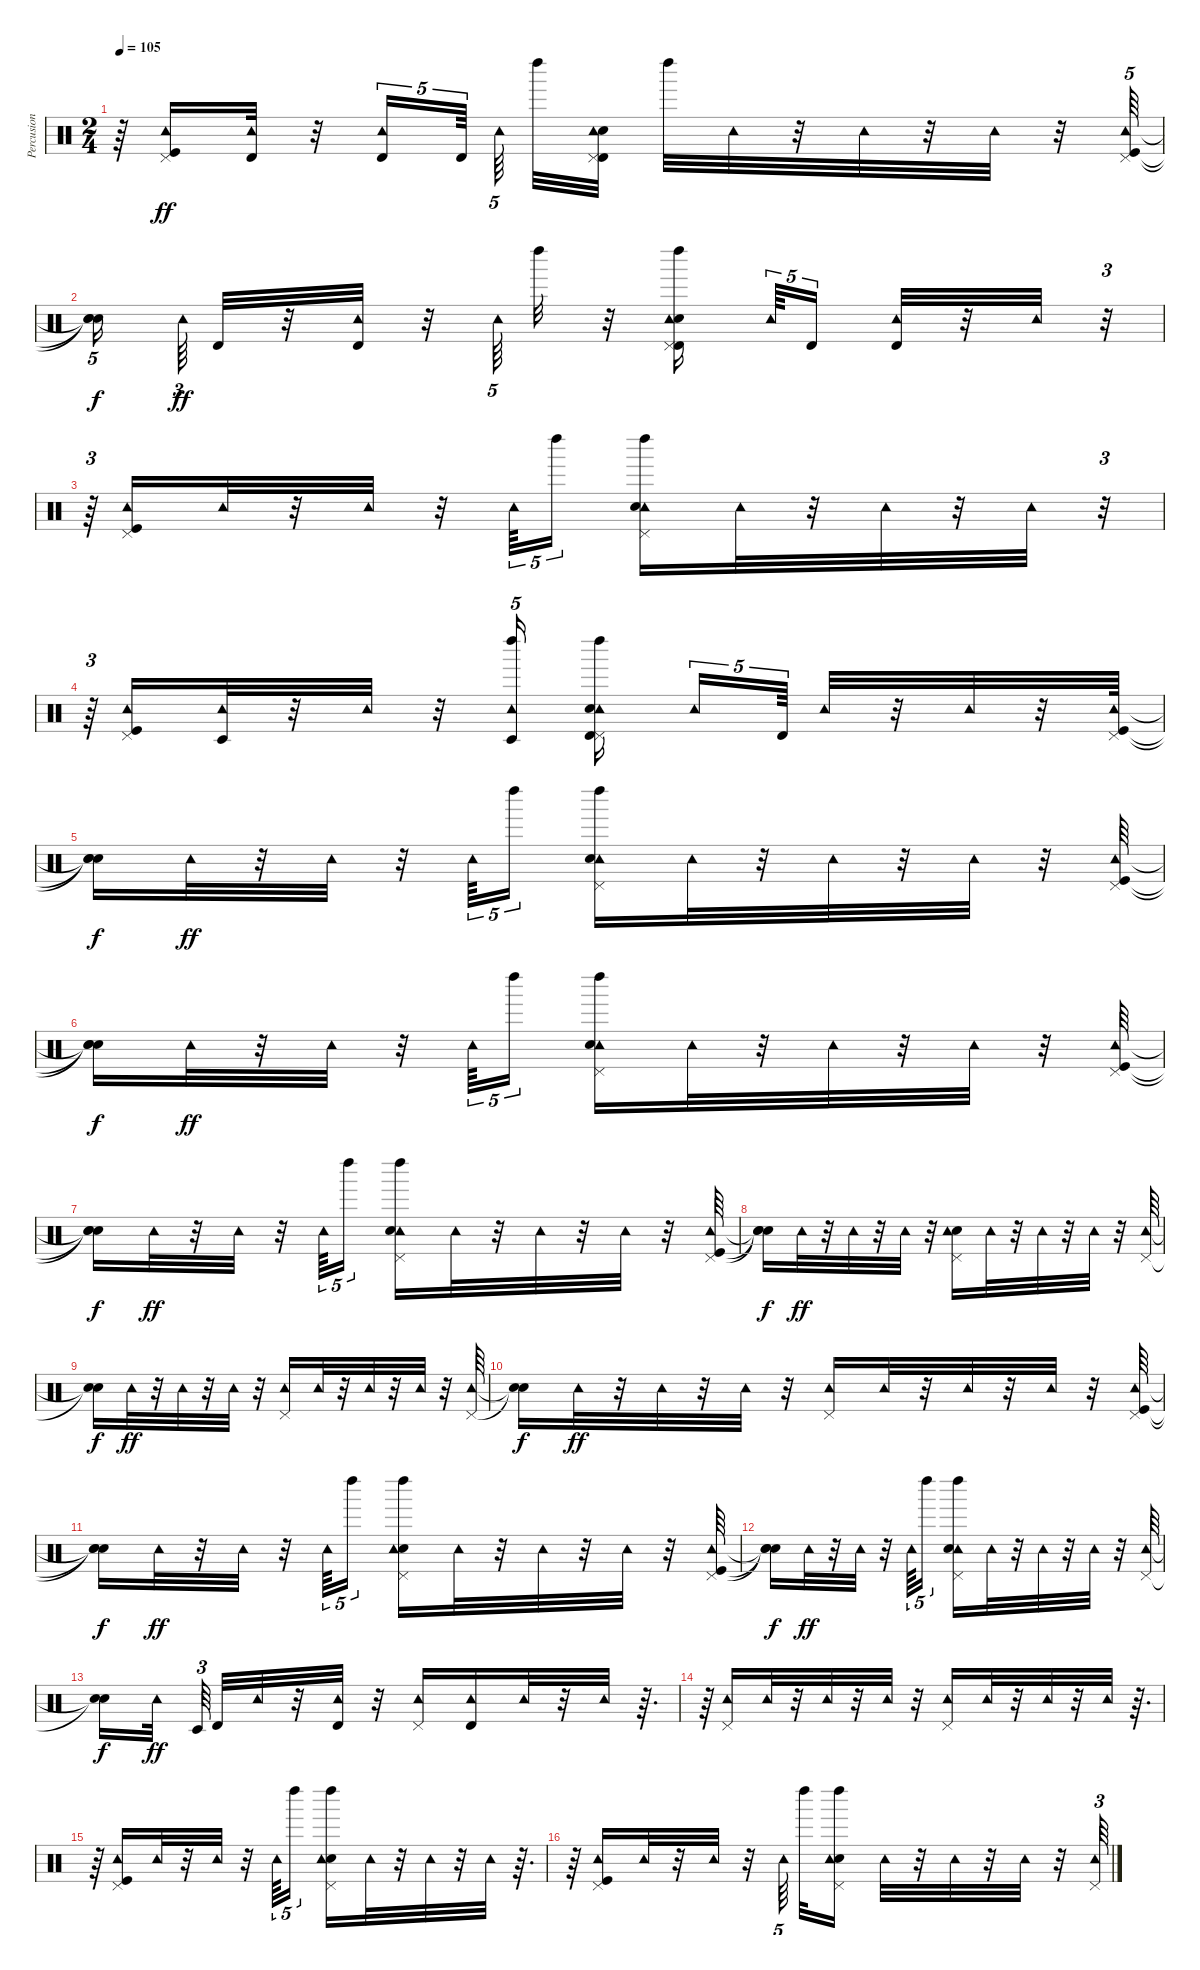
\track ("Percusion" "Percusion") {instrument percussion}
\staff {score}
\articulation defaults
\ts (2 4)
\tempo 105
\clef neutral
\ks c
r.64{dy ff} ("Tambourine (hit)" "Kick (hit)" "Pedal Hi-Hat (hit)").16 ("Tambourine (hit)" "Timbale high (hit)").32 r.32 ("Timbale high (hit)" "Tambourine (hit)").16{tu (5 4)} "Timbale high (hit)".64{tu (5 4) beam splitsecondary} "Tambourine (hit)".64{tu (5 4) beam splitsecondary} "Left Maraca (hit)".32 ("Timbale high (hit)" "Pedal Hi-Hat (hit)" "Electric Snare (hit)" "Tambourine (hit)").32 "Left Maraca (hit)".32 "Tambourine (hit)".32 r.32 "Tambourine (hit)".32 r.32 "Tambourine (hit)".32 r.32 ("Pedal Hi-Hat (hit)" "Tambourine (hit)" "Kick (hit)").64{tu (5 4)} |
("Snare (hit)"{t} "Snare (hit)"{t} "Snare (hit)"{t}).16{tu (5 4) dy f} "Tambourine (hit)".64{tu (3 2) dy ff beam splitsecondary} "Timbale high (hit)".32 r.32 ("Tambourine (hit)" "Timbale high (hit)").32 r.32 "Tambourine (hit)".64{tu (5 4)} "Left Maraca (hit)".32 r.32 ("Timbale high (hit)" "Electric Snare (hit)" "Tambourine (hit)" "Pedal Hi-Hat (hit)" "Left Maraca (hit)").16{beam splitsecondary} "Tambourine (hit)".64{tu (5 4)} "Timbale high (hit)".16{tu (5 4) beam splitsecondary} ("Tambourine (hit)" "Timbale high (hit)").32 r.32 "Tambourine (hit)".32 r.32{tu (3 2)} |
r.64{tu (3 2)} ("Kick (hit)" "Tambourine (hit)" "Pedal Hi-Hat (hit)").16 "Tambourine (hit)".32 r.32 "Tambourine (hit)".32 r.32 "Tambourine (hit)".64{tu (5 4)} "Left Maraca (hit)".16{tu (5 4)} ("Pedal Hi-Hat (hit)" "Tambourine (hit)" "Electric Snare (hit)" "Left Maraca (hit)").16 "Tambourine (hit)".32 r.32 "Tambourine (hit)".32 r.32 "Tambourine (hit)".32 r.32{tu (3 2)} |
r.64{tu (3 2)} ("Tambourine (hit)" "Kick (hit)" "Pedal Hi-Hat (hit)").16 ("Tambourine (hit)" "Timbale low (hit)").32 r.32 "Tambourine (hit)".32 r.32 ("Tambourine (hit)" "Timbale low (hit)" "Left Maraca (hit)").16{tu (5 4)} ("Tambourine (hit)" "Electric Snare (hit)" "Pedal Hi-Hat (hit)" "Timbale high (hit)" "Left Maraca (hit)").16 "Tambourine (hit)".16{tu (5 4)} "Timbale high (hit)".64{tu (5 4) beam splitsecondary} "Tambourine (hit)".32 r.32 "Tambourine (hit)".32 r.32 ("Pedal Hi-Hat (hit)" "Kick (hit)" "Tambourine (hit)").64 |
("Snare (hit)"{t} "Snare (hit)"{t} "Snare (hit)"{t}).16{dy f} "Tambourine (hit)".32{dy ff} r.32 "Tambourine (hit)".32 r.32 "Tambourine (hit)".64{tu (5 4)} "Left Maraca (hit)".16{tu (5 4)} ("Pedal Hi-Hat (hit)" "Tambourine (hit)" "Electric Snare (hit)" "Left Maraca (hit)").16 "Tambourine (hit)".32 r.32 "Tambourine (hit)".32 r.32 "Tambourine (hit)".32 r.32 ("Kick (hit)" "Tambourine (hit)" "Pedal Hi-Hat (hit)").64 |
("Snare (hit)"{t} "Snare (hit)"{t} "Snare (hit)"{t}).16{dy f} "Tambourine (hit)".32{dy ff} r.32 "Tambourine (hit)".32 r.32 "Tambourine (hit)".64{tu (5 4)} "Left Maraca (hit)".16{tu (5 4)} ("Tambourine (hit)" "Electric Snare (hit)" "Pedal Hi-Hat (hit)" "Left Maraca (hit)").16 "Tambourine (hit)".32 r.32 "Tambourine (hit)".32 r.32 "Tambourine (hit)".32 r.32 ("Pedal Hi-Hat (hit)" "Tambourine (hit)" "Kick (hit)").64 |
("Snare (hit)"{t} "Snare (hit)"{t} "Snare (hit)"{t}).16{dy f} "Tambourine (hit)".32{dy ff} r.32 "Tambourine (hit)".32 r.32 "Tambourine (hit)".64{tu (5 4)} "Left Maraca (hit)".16{tu (5 4)} ("Pedal Hi-Hat (hit)" "Tambourine (hit)" "Electric Snare (hit)" "Left Maraca (hit)").16 "Tambourine (hit)".32 r.32 "Tambourine (hit)".32 r.32 "Tambourine (hit)".32 r.32 ("Kick (hit)" "Tambourine (hit)" "Pedal Hi-Hat (hit)").64 |
("Snare (hit)"{t} "Snare (hit)"{t} "Snare (hit)"{t}).16{dy f} "Tambourine (hit)".32{dy ff} r.32 "Tambourine (hit)".32 r.32 "Tambourine (hit)".32 r.32 ("Snare (hit) 2" "Tambourine (hit)" "Pedal Hi-Hat (hit)").16 "Tambourine (hit)".32 r.32 "Tambourine (hit)".32 r.32 "Tambourine (hit)".32 r.32 ("Pedal Hi-Hat (hit)" "Tambourine (hit)").64 |
("Snare (hit)"{t} "Snare (hit)"{t}).16{dy f} "Tambourine (hit)".32{dy ff} r.32 "Tambourine (hit)".32 r.32 "Tambourine (hit)".32 r.32 ("Tambourine (hit)" "Pedal Hi-Hat (hit)").16 "Tambourine (hit)".32 r.32 "Tambourine (hit)".32 r.32 "Tambourine (hit)".32 r.32 ("Tambourine (hit)" "Pedal Hi-Hat (hit)").64 |
("Snare (hit)"{t} "Snare (hit)"{t}).16{dy f} "Tambourine (hit)".32{dy ff} r.32 "Tambourine (hit)".32 r.32 "Tambourine (hit)".32 r.32 ("Pedal Hi-Hat (hit)" "Tambourine (hit)").16 "Tambourine (hit)".32 r.32 "Tambourine (hit)".32 r.32 "Tambourine (hit)".32 r.32 ("Pedal Hi-Hat (hit)" "Kick (hit)" "Tambourine (hit)").64 |
("Snare (hit)"{t} "Snare (hit)"{t} "Snare (hit)"{t}).16{dy f} "Tambourine (hit)".32{dy ff} r.32 "Tambourine (hit)".32 r.32 "Tambourine (hit)".64{tu (5 4)} "Left Maraca (hit)".16{tu (5 4)} ("Electric Snare (hit)" "Tambourine (hit)" "Pedal Hi-Hat (hit)" "Left Maraca (hit)").16 "Tambourine (hit)".32 r.32 "Tambourine (hit)".32 r.32 "Tambourine (hit)".32 r.32 ("Tambourine (hit)" "Kick (hit)" "Pedal Hi-Hat (hit)").64 |
("Snare (hit)"{t} "Snare (hit)"{t} "Snare (hit)"{t}).16{dy f} "Tambourine (hit)".32{dy ff} r.32 "Tambourine (hit)".32 r.32 "Tambourine (hit)".64{tu (5 4)} "Left Maraca (hit)".16{tu (5 4)} ("Pedal Hi-Hat (hit)" "Tambourine (hit)" "Left Maraca (hit)" "Snare (hit) 2").16 "Tambourine (hit)".32 r.32 "Tambourine (hit)".32 r.32 "Tambourine (hit)".32 r.32 ("Pedal Hi-Hat (hit)" "Tambourine (hit)").64 |
("Snare (hit)"{t} "Snare (hit)"{t}).16{dy f} "Tambourine (hit)".32{dy ff beam splitsecondary} "Timbale low (hit)".64{tu (3 2) beam splitsecondary} "Timbale high (hit)".32 "Tambourine (hit)".32 r.32 ("Tambourine (hit)" "Timbale high (hit)").32 r.32 ("Tambourine (hit)" "Pedal Hi-Hat (hit)").16 ("Tambourine (hit)" "Timbale high (hit)").16 "Tambourine (hit)".32 r.32 "Tambourine (hit)".32 r.64{d} |
r.64 ("Pedal Hi-Hat (hit)" "Tambourine (hit)").16 "Tambourine (hit)".32 r.32 "Tambourine (hit)".32 r.32 "Tambourine (hit)".32 r.32 ("Pedal Hi-Hat (hit)" "Tambourine (hit)").16 "Tambourine (hit)".32 r.32 "Tambourine (hit)".32 r.32 "Tambourine (hit)".32 r.64{d} |
r.64 ("Kick (hit)" "Tambourine (hit)" "Pedal Hi-Hat (hit)").16 "Tambourine (hit)".32 r.32 "Tambourine (hit)".32 r.32 "Tambourine (hit)".64{tu (5 4)} "Left Maraca (hit)".16{tu (5 4)} ("Electric Snare (hit)" "Tambourine (hit)" "Pedal Hi-Hat (hit)" "Left Maraca (hit)").16 "Tambourine (hit)".32 r.32 "Tambourine (hit)".32 r.32 "Tambourine (hit)".32 r.64{d} |
r.64 ("Pedal Hi-Hat (hit)" "Tambourine (hit)" "Kick (hit)").16 "Tambourine (hit)".32 r.32 "Tambourine (hit)".32 r.32 "Tambourine (hit)".64{tu (5 4) beam splitsecondary} "Left Maraca (hit)".32 ("Snare (hit) 2" "Pedal Hi-Hat (hit)" "Tambourine (hit)" "Left Maraca (hit)").16 "Tambourine (hit)".32 r.32 "Tambourine (hit)".32 r.32 "Tambourine (hit)".32 r.32 ("Tambourine (hit)" "Pedal Hi-Hat (hit)").64{tu (3 2)}
